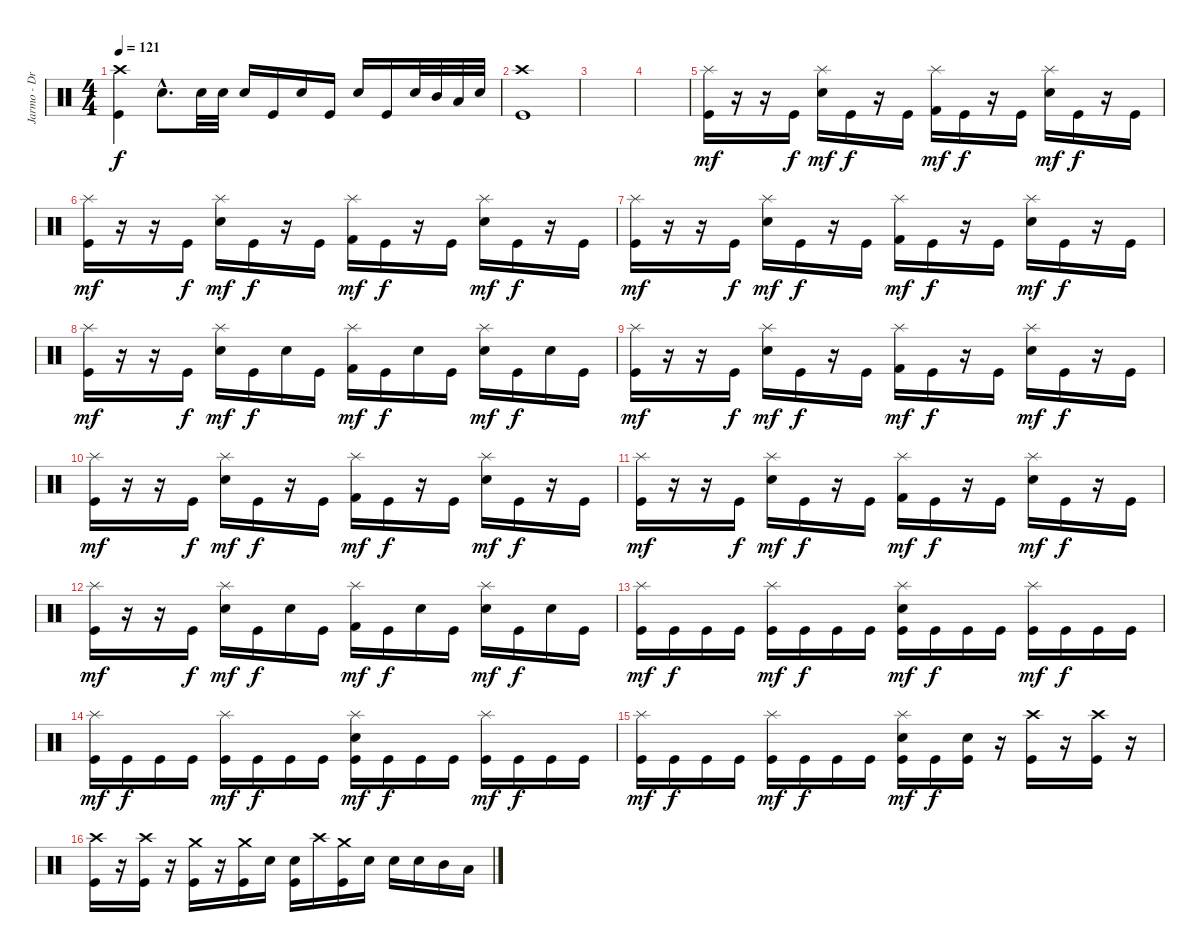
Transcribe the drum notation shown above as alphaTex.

\track ("Jarmo - Drums" "Jarmo - Dr") {instrument percussion}
\staff {score}
\articulation defaults
\ts (4 4)
\tempo 121
\clef neutral
\ks c
("Kick (hit)" "Crash high (hit)").4{dy f} "Electric Snare (hit)"{hac}.8{d} "Electric Snare (hit)".32 "Electric Snare (hit)".32 "Electric Snare (hit)".16 "Kick (hit)".16 "Electric Snare (hit)".16 "Kick (hit)".16 "Electric Snare (hit)".16 "Kick (hit)".16 "Electric Snare (hit)".32 "Mid Tom (hit)".32 "Low Tom (hit)".32 "Electric Snare (hit)".32 |
("Kick (hit)" "Crash high (hit)").1 |
|
|
("Kick (hit)" "Splash (hit)").16{dy mf} r.16 r.16 "Kick (hit)".16{dy f} ("Electric Snare (hit)" "Splash (hit)").16{dy mf} "Kick (hit)".16{dy f} r.16 "Kick (hit)".16 ("Kick (hit) 2" "Splash (hit)").16{dy mf} "Kick (hit)".16{dy f} r.16 "Kick (hit)".16 ("Electric Snare (hit)" "Splash (hit)").16{dy mf} "Kick (hit)".16{dy f} r.16 "Kick (hit)".16 |
("Kick (hit)" "Splash (hit)").16{dy mf} r.16 r.16 "Kick (hit)".16{dy f} ("Electric Snare (hit)" "Splash (hit)").16{dy mf} "Kick (hit)".16{dy f} r.16 "Kick (hit)".16 ("Kick (hit) 2" "Splash (hit)").16{dy mf} "Kick (hit)".16{dy f} r.16 "Kick (hit)".16 ("Electric Snare (hit)" "Splash (hit)").16{dy mf} "Kick (hit)".16{dy f} r.16 "Kick (hit)".16 |
("Kick (hit)" "Splash (hit)").16{dy mf} r.16 r.16 "Kick (hit)".16{dy f} ("Electric Snare (hit)" "Splash (hit)").16{dy mf} "Kick (hit)".16{dy f} r.16 "Kick (hit)".16 ("Kick (hit) 2" "Splash (hit)").16{dy mf} "Kick (hit)".16{dy f} r.16 "Kick (hit)".16 ("Electric Snare (hit)" "Splash (hit)").16{dy mf} "Kick (hit)".16{dy f} r.16 "Kick (hit)".16 |
("Kick (hit)" "Splash (hit)").16{dy mf} r.16 r.16 "Kick (hit)".16{dy f} ("Electric Snare (hit)" "Splash (hit)").16{dy mf} "Kick (hit)".16{dy f} "Electric Snare (hit)".16 "Kick (hit)".16 ("Kick (hit) 2" "Splash (hit)").16{dy mf} "Kick (hit)".16{dy f} "Electric Snare (hit)".16 "Kick (hit)".16 ("Electric Snare (hit)" "Splash (hit)").16{dy mf} "Kick (hit)".16{dy f} "Electric Snare (hit)".16 "Kick (hit)".16 |
("Kick (hit)" "Splash (hit)").16{dy mf} r.16 r.16 "Kick (hit)".16{dy f} ("Electric Snare (hit)" "Splash (hit)").16{dy mf} "Kick (hit)".16{dy f} r.16 "Kick (hit)".16 ("Kick (hit) 2" "Splash (hit)").16{dy mf} "Kick (hit)".16{dy f} r.16 "Kick (hit)".16 ("Electric Snare (hit)" "Splash (hit)").16{dy mf} "Kick (hit)".16{dy f} r.16 "Kick (hit)".16 |
("Kick (hit)" "Splash (hit)").16{dy mf} r.16 r.16 "Kick (hit)".16{dy f} ("Electric Snare (hit)" "Splash (hit)").16{dy mf} "Kick (hit)".16{dy f} r.16 "Kick (hit)".16 ("Kick (hit) 2" "Splash (hit)").16{dy mf} "Kick (hit)".16{dy f} r.16 "Kick (hit)".16 ("Electric Snare (hit)" "Splash (hit)").16{dy mf} "Kick (hit)".16{dy f} r.16 "Kick (hit)".16 |
("Kick (hit)" "Splash (hit)").16{dy mf} r.16 r.16 "Kick (hit)".16{dy f} ("Electric Snare (hit)" "Splash (hit)").16{dy mf} "Kick (hit)".16{dy f} r.16 "Kick (hit)".16 ("Kick (hit) 2" "Splash (hit)").16{dy mf} "Kick (hit)".16{dy f} r.16 "Kick (hit)".16 ("Electric Snare (hit)" "Splash (hit)").16{dy mf} "Kick (hit)".16{dy f} r.16 "Kick (hit)".16 |
("Kick (hit)" "Splash (hit)").16{dy mf} r.16 r.16 "Kick (hit)".16{dy f} ("Electric Snare (hit)" "Splash (hit)").16{dy mf} "Kick (hit)".16{dy f} "Electric Snare (hit)".16 "Kick (hit)".16 ("Kick (hit) 2" "Splash (hit)").16{dy mf} "Kick (hit)".16{dy f} "Electric Snare (hit)".16 "Kick (hit)".16 ("Electric Snare (hit)" "Splash (hit)").16{dy mf} "Kick (hit)".16{dy f} "Electric Snare (hit)".16 "Kick (hit)".16 |
("Kick (hit)" "Splash (hit)").16{dy mf} "Kick (hit)".16{dy f} "Kick (hit)".16 "Kick (hit)".16 ("Kick (hit)" "Splash (hit)").16{dy mf} "Kick (hit)".16{dy f} "Kick (hit)".16 "Kick (hit)".16 ("Kick (hit)" "Electric Snare (hit)" "Splash (hit)").16{dy mf} "Kick (hit)".16{dy f} "Kick (hit)".16 "Kick (hit)".16 ("Kick (hit)" "Splash (hit)").16{dy mf} "Kick (hit)".16{dy f} "Kick (hit)".16 "Kick (hit)".16 |
("Kick (hit)" "Splash (hit)").16{dy mf} "Kick (hit)".16{dy f} "Kick (hit)".16 "Kick (hit)".16 ("Kick (hit)" "Splash (hit)").16{dy mf} "Kick (hit)".16{dy f} "Kick (hit)".16 "Kick (hit)".16 ("Kick (hit)" "Electric Snare (hit)" "Splash (hit)").16{dy mf} "Kick (hit)".16{dy f} "Kick (hit)".16 "Kick (hit)".16 ("Kick (hit)" "Splash (hit)").16{dy mf} "Kick (hit)".16{dy f} "Kick (hit)".16 "Kick (hit)".16 |
("Kick (hit)" "Splash (hit)").16{dy mf} "Kick (hit)".16{dy f} "Kick (hit)".16 "Kick (hit)".16 ("Kick (hit)" "Splash (hit)").16{dy mf} "Kick (hit)".16{dy f} "Kick (hit)".16 "Kick (hit)".16 ("Kick (hit)" "Electric Snare (hit)" "Splash (hit)").16{dy mf} "Kick (hit)".16{dy f} ("Kick (hit)" "Electric Snare (hit)").16 r.16 ("Kick (hit)" "Crash high (hit)").16 r.16 ("Kick (hit)" "Crash high (hit)").16 r.16 |
("Kick (hit)" "Crash high (hit)").16 r.16 ("Kick (hit)" "Crash high (hit)").16 r.16 ("Kick (hit)" "Crash medium (hit)").16 r.16 ("Kick (hit)" "Crash medium (hit)").16 "Electric Snare (hit)".16 ("Kick (hit)" "Electric Snare (hit)").16 "Crash high (hit)".16 ("Kick (hit)" "Crash medium (hit)").16 "Electric Snare (hit)".16 "Electric Snare (hit)".16 "Electric Snare (hit)".16 "Mid Tom (hit)".16 "Low Tom (hit)".16
